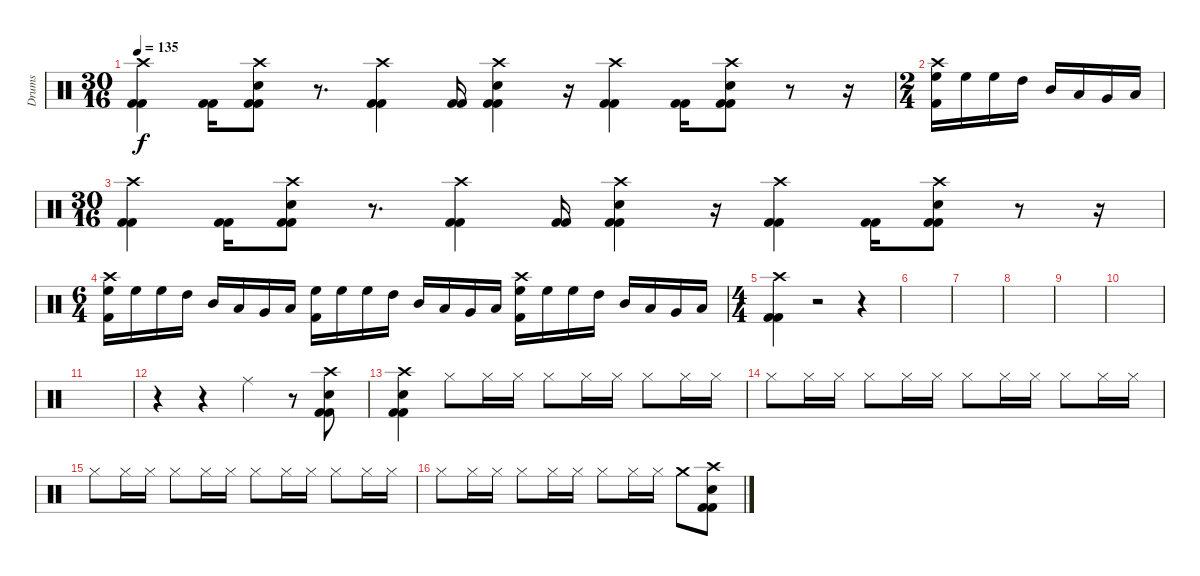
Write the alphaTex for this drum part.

\track ("Drums" "Drums") {instrument percussion}
\staff {score}
\articulation defaults
\ts (30 16)
\tempo 135
\clef neutral
\ks c
("Crash high (hit)" "Kick (hit) 2" "Kick (hit) 2").4{dy f} ("Kick (hit) 2" "Kick (hit) 2").16 ("Crash high (hit)" "Electric Snare (hit)" "Kick (hit) 2" "Kick (hit) 2").8 r.8{d} ("Crash high (hit)" "Kick (hit) 2" "Kick (hit) 2").4 ("Kick (hit) 2" "Kick (hit) 2").16 ("Crash high (hit)" "Electric Snare (hit)" "Kick (hit) 2" "Kick (hit) 2").4 r.16 ("Crash high (hit)" "Kick (hit) 2" "Kick (hit) 2").4 ("Kick (hit) 2" "Kick (hit) 2").16 ("Crash high (hit)" "Electric Snare (hit)" "Kick (hit) 2" "Kick (hit) 2").8 r.8 r.16 |
\ts (2 4)
("Crash high (hit)" "High Floor Tom (hit)" "Kick (hit) 2").16 "High Floor Tom (hit)".16 "High Floor Tom (hit)".16 "High Tom (hit)".16 "Mid Tom (hit)".16 "Low Tom (hit)".16 "Very Low Tom (hit)".16 "Low Floor Tom (hit)".16 |
\ts (30 16)
("Crash high (hit)" "Kick (hit) 2" "Kick (hit) 2").4 ("Kick (hit) 2" "Kick (hit) 2").16 ("Crash high (hit)" "Electric Snare (hit)" "Kick (hit) 2" "Kick (hit) 2").8 r.8{d} ("Crash high (hit)" "Kick (hit) 2" "Kick (hit) 2").4 ("Kick (hit) 2" "Kick (hit) 2").16 ("Crash high (hit)" "Electric Snare (hit)" "Kick (hit) 2" "Kick (hit) 2").4 r.16 ("Crash high (hit)" "Kick (hit) 2" "Kick (hit) 2").4 ("Kick (hit) 2" "Kick (hit) 2").16 ("Crash high (hit)" "Electric Snare (hit)" "Kick (hit) 2" "Kick (hit) 2").8 r.8 r.16 |
\ts (6 4)
("Crash high (hit)" "High Floor Tom (hit)" "Kick (hit) 2").16 "High Floor Tom (hit)".16 "High Floor Tom (hit)".16 "High Tom (hit)".16 "Mid Tom (hit)".16 "Low Tom (hit)".16 "Very Low Tom (hit)".16 "Low Floor Tom (hit)".16 ("High Floor Tom (hit)" "Kick (hit) 2").16 "High Floor Tom (hit)".16 "High Floor Tom (hit)".16 "High Tom (hit)".16 "Mid Tom (hit)".16 "Low Tom (hit)".16 "Very Low Tom (hit)".16 "Low Floor Tom (hit)".16 ("Crash high (hit)" "High Floor Tom (hit)" "Kick (hit) 2").16 "High Floor Tom (hit)".16 "High Floor Tom (hit)".16 "High Tom (hit)".16 "Mid Tom (hit)".16 "Low Tom (hit)".16 "Very Low Tom (hit)".16 "Low Floor Tom (hit)".16 |
\ts (4 4)
("Crash high (hit)" "Kick (hit) 2" "Kick (hit) 2").4 r.2 r.4 |
|
|
|
|
|
|
r.4 r.4 "Ride (middle)".4 r.8 ("Crash high (hit)" "Electric Snare (hit)" "Kick (hit) 2" "Kick (hit) 2").8 |
("Crash high (hit)" "Electric Snare (hit)" "Kick (hit) 2" "Kick (hit) 2").4 "Hi-Hat (closed)".8 "Hi-Hat (closed)".16 "Hi-Hat (closed)".16 "Hi-Hat (closed)".8 "Hi-Hat (closed)".16 "Hi-Hat (closed)".16 "Hi-Hat (closed)".8 "Hi-Hat (closed)".16 "Hi-Hat (closed)".16 |
"Hi-Hat (closed)".8 "Hi-Hat (closed)".16 "Hi-Hat (closed)".16 "Hi-Hat (closed)".8 "Hi-Hat (closed)".16 "Hi-Hat (closed)".16 "Hi-Hat (closed)".8 "Hi-Hat (closed)".16 "Hi-Hat (closed)".16 "Hi-Hat (closed)".8 "Hi-Hat (closed)".16 "Hi-Hat (closed)".16 |
"Hi-Hat (closed)".8 "Hi-Hat (closed)".16 "Hi-Hat (closed)".16 "Hi-Hat (closed)".8 "Hi-Hat (closed)".16 "Hi-Hat (closed)".16 "Hi-Hat (closed)".8 "Hi-Hat (closed)".16 "Hi-Hat (closed)".16 "Hi-Hat (closed)".8 "Hi-Hat (closed)".16 "Hi-Hat (closed)".16 |
"Hi-Hat (closed)".8 "Hi-Hat (closed)".16 "Hi-Hat (closed)".16 "Hi-Hat (closed)".8 "Hi-Hat (closed)".16 "Hi-Hat (closed)".16 "Hi-Hat (closed)".8 "Hi-Hat (closed)".16 "Hi-Hat (closed)".16 "Crash medium (hit)".8 ("Crash high (hit)" "Electric Snare (hit)" "Kick (hit) 2" "Kick (hit) 2").8
